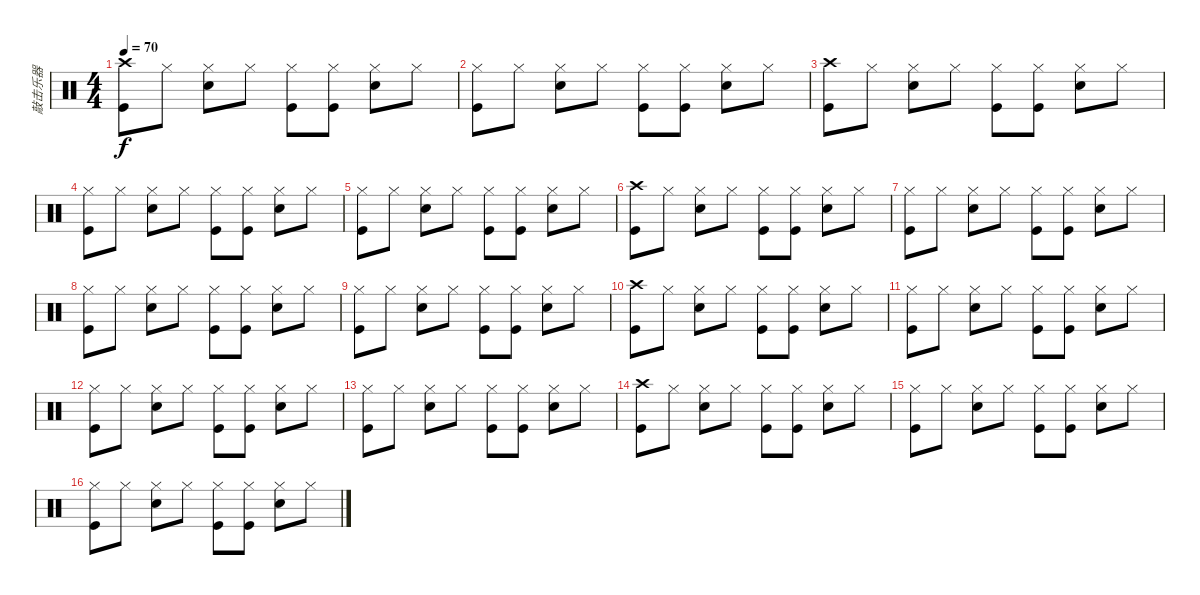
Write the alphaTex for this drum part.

\track ("敲击乐器" "敲击乐器") {instrument percussion}
\staff {score}
\articulation defaults
\ts (4 4)
\tempo 70
\clef neutral
\ks c
("Crash high (hit)" "Kick (hit)").8{dy f} "Hi-Hat (closed)".8 ("Hi-Hat (closed)" "Snare (hit) 2").8 "Hi-Hat (closed)".8 ("Hi-Hat (closed)" "Kick (hit)").8 ("Hi-Hat (closed)" "Kick (hit)").8 ("Hi-Hat (closed)" "Snare (hit) 2").8 "Hi-Hat (closed)".8 |
("Hi-Hat (closed)" "Kick (hit)").8 "Hi-Hat (closed)".8 ("Hi-Hat (closed)" "Snare (hit) 2").8 "Hi-Hat (closed)".8 ("Hi-Hat (closed)" "Kick (hit)").8 ("Hi-Hat (closed)" "Kick (hit)").8 ("Hi-Hat (closed)" "Snare (hit) 2").8 "Hi-Hat (closed)".8 |
("Crash high (hit)" "Kick (hit)").8 "Hi-Hat (closed)".8 ("Hi-Hat (closed)" "Snare (hit) 2").8 "Hi-Hat (closed)".8 ("Hi-Hat (closed)" "Kick (hit)").8 ("Hi-Hat (closed)" "Kick (hit)").8 ("Hi-Hat (closed)" "Snare (hit) 2").8 "Hi-Hat (closed)".8 |
("Hi-Hat (closed)" "Kick (hit)").8 "Hi-Hat (closed)".8 ("Hi-Hat (closed)" "Snare (hit) 2").8 "Hi-Hat (closed)".8 ("Hi-Hat (closed)" "Kick (hit)").8 ("Hi-Hat (closed)" "Kick (hit)").8 ("Hi-Hat (closed)" "Snare (hit) 2").8 "Hi-Hat (closed)".8 |
("Hi-Hat (closed)" "Kick (hit)").8 "Hi-Hat (closed)".8 ("Hi-Hat (closed)" "Snare (hit) 2").8 "Hi-Hat (closed)".8 ("Hi-Hat (closed)" "Kick (hit)").8 ("Hi-Hat (closed)" "Kick (hit)").8 ("Hi-Hat (closed)" "Snare (hit) 2").8 "Hi-Hat (closed)".8 |
("Crash high (hit)" "Kick (hit)").8 "Hi-Hat (closed)".8 ("Hi-Hat (closed)" "Snare (hit) 2").8 "Hi-Hat (closed)".8 ("Hi-Hat (closed)" "Kick (hit)").8 ("Hi-Hat (closed)" "Kick (hit)").8 ("Hi-Hat (closed)" "Snare (hit) 2").8 "Hi-Hat (closed)".8 |
("Hi-Hat (closed)" "Kick (hit)").8 "Hi-Hat (closed)".8 ("Hi-Hat (closed)" "Snare (hit) 2").8 "Hi-Hat (closed)".8 ("Hi-Hat (closed)" "Kick (hit)").8 ("Hi-Hat (closed)" "Kick (hit)").8 ("Hi-Hat (closed)" "Snare (hit) 2").8 "Hi-Hat (closed)".8 |
("Hi-Hat (closed)" "Kick (hit)").8 "Hi-Hat (closed)".8 ("Hi-Hat (closed)" "Snare (hit) 2").8 "Hi-Hat (closed)".8 ("Hi-Hat (closed)" "Kick (hit)").8 ("Hi-Hat (closed)" "Kick (hit)").8 ("Hi-Hat (closed)" "Snare (hit) 2").8 "Hi-Hat (closed)".8 |
("Hi-Hat (closed)" "Kick (hit)").8 "Hi-Hat (closed)".8 ("Hi-Hat (closed)" "Snare (hit) 2").8 "Hi-Hat (closed)".8 ("Hi-Hat (closed)" "Kick (hit)").8 ("Hi-Hat (closed)" "Kick (hit)").8 ("Hi-Hat (closed)" "Snare (hit) 2").8 "Hi-Hat (closed)".8 |
("Crash high (hit)" "Kick (hit)").8 "Hi-Hat (closed)".8 ("Hi-Hat (closed)" "Snare (hit) 2").8 "Hi-Hat (closed)".8 ("Hi-Hat (closed)" "Kick (hit)").8 ("Hi-Hat (closed)" "Kick (hit)").8 ("Hi-Hat (closed)" "Snare (hit) 2").8 "Hi-Hat (closed)".8 |
("Hi-Hat (closed)" "Kick (hit)").8 "Hi-Hat (closed)".8 ("Hi-Hat (closed)" "Snare (hit) 2").8 "Hi-Hat (closed)".8 ("Hi-Hat (closed)" "Kick (hit)").8 ("Hi-Hat (closed)" "Kick (hit)").8 ("Hi-Hat (closed)" "Snare (hit) 2").8 "Hi-Hat (closed)".8 |
("Hi-Hat (closed)" "Kick (hit)").8 "Hi-Hat (closed)".8 ("Hi-Hat (closed)" "Snare (hit) 2").8 "Hi-Hat (closed)".8 ("Hi-Hat (closed)" "Kick (hit)").8 ("Hi-Hat (closed)" "Kick (hit)").8 ("Hi-Hat (closed)" "Snare (hit) 2").8 "Hi-Hat (closed)".8 |
("Hi-Hat (closed)" "Kick (hit)").8 "Hi-Hat (closed)".8 ("Hi-Hat (closed)" "Snare (hit) 2").8 "Hi-Hat (closed)".8 ("Hi-Hat (closed)" "Kick (hit)").8 ("Hi-Hat (closed)" "Kick (hit)").8 ("Hi-Hat (closed)" "Snare (hit) 2").8 "Hi-Hat (closed)".8 |
("Crash high (hit)" "Kick (hit)").8 "Hi-Hat (closed)".8 ("Hi-Hat (closed)" "Snare (hit) 2").8 "Hi-Hat (closed)".8 ("Hi-Hat (closed)" "Kick (hit)").8 ("Hi-Hat (closed)" "Kick (hit)").8 ("Hi-Hat (closed)" "Snare (hit) 2").8 "Hi-Hat (closed)".8 |
("Hi-Hat (closed)" "Kick (hit)").8 "Hi-Hat (closed)".8 ("Hi-Hat (closed)" "Snare (hit) 2").8 "Hi-Hat (closed)".8 ("Hi-Hat (closed)" "Kick (hit)").8 ("Hi-Hat (closed)" "Kick (hit)").8 ("Hi-Hat (closed)" "Snare (hit) 2").8 "Hi-Hat (closed)".8 |
("Hi-Hat (closed)" "Kick (hit)").8 "Hi-Hat (closed)".8 ("Hi-Hat (closed)" "Snare (hit) 2").8 "Hi-Hat (closed)".8 ("Hi-Hat (closed)" "Kick (hit)").8 ("Hi-Hat (closed)" "Kick (hit)").8 ("Hi-Hat (closed)" "Snare (hit) 2").8 "Hi-Hat (closed)".8
